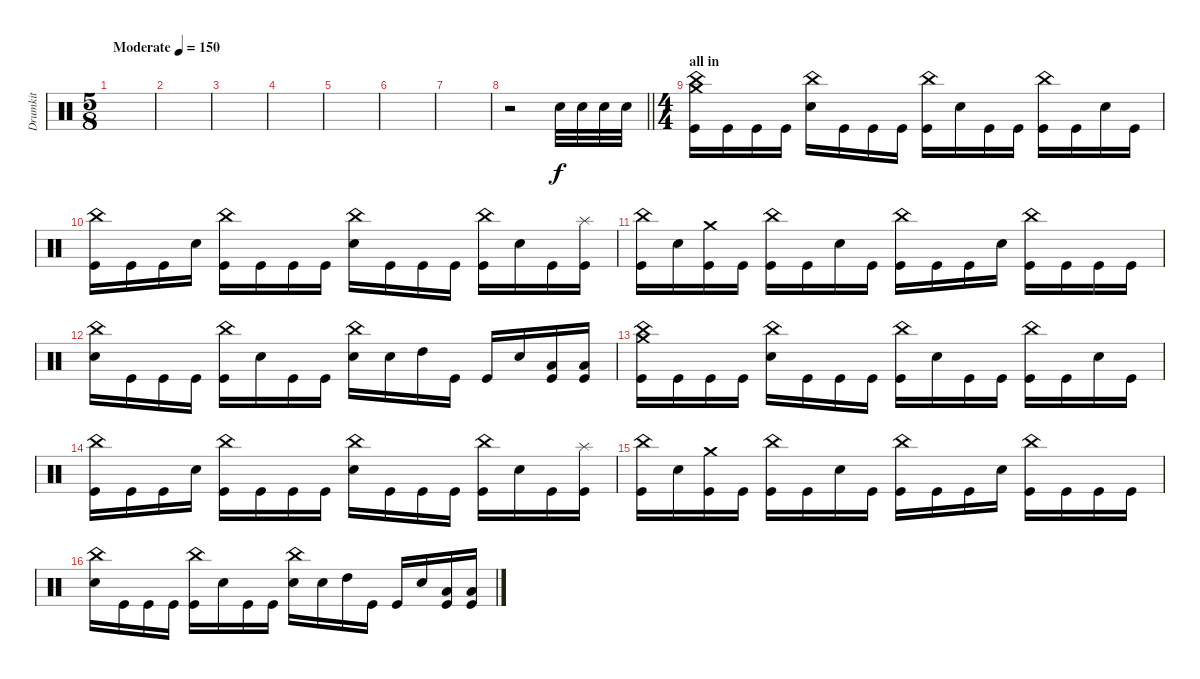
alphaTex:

\track ("Drumkit" "Drumkit") {instrument percussion}
\staff {score}
\articulation defaults
\ts (5 8)
\tempo (150 "Moderate")
\clef neutral
\ks c
|
|
|
|
|
|
|
\barLineRight lightlight
r.2 "Snare (hit) 2".32 "Snare (hit) 2".32 "Snare (hit) 2".32 "Snare (hit) 2".32 |
\ts (4 4)
\section ("" "all in")
("Kick (hit)" "Crash medium (hit)" "China (hit)").16 "Kick (hit)".16 "Kick (hit)".16 "Kick (hit)".16 ("Snare (hit) 2" "China (hit)").16 "Kick (hit)".16 "Kick (hit)".16 "Kick (hit)".16 ("Kick (hit)" "China (hit)").16 "Snare (hit) 2".16 "Kick (hit)".16 "Kick (hit)".16 ("Kick (hit)" "China (hit)").16 "Kick (hit)".16 "Snare (hit) 2".16 "Kick (hit)".16 |
("Kick (hit)" "China (hit)").16 "Kick (hit)".16 "Kick (hit)".16 "Snare (hit) 2".16 ("Kick (hit)" "China (hit)").16 "Kick (hit)".16 "Kick (hit)".16 "Kick (hit)".16 ("Snare (hit) 2" "China (hit)").16 "Kick (hit)".16 "Kick (hit)".16 "Kick (hit)".16 ("Kick (hit)" "China (hit)").16 "Snare (hit) 2".16 "Kick (hit)".16 ("Kick (hit)" "Splash (hit)").16 |
("Kick (hit)" "China (hit)").16 "Snare (hit) 2".16 ("Kick (hit)" "Crash medium (hit)").16 "Kick (hit)".16 ("Kick (hit)" "China (hit)").16 "Kick (hit)".16 "Snare (hit) 2".16 "Kick (hit)".16 ("Kick (hit)" "China (hit)").16 "Kick (hit)".16 "Kick (hit)".16 "Snare (hit) 2".16 ("Kick (hit)" "China (hit)").16 "Kick (hit)".16 "Kick (hit)".16 "Kick (hit)".16 |
("Snare (hit) 2" "China (hit)").16 "Kick (hit)".16 "Kick (hit)".16 "Kick (hit)".16 ("Kick (hit)" "China (hit)").16 "Snare (hit) 2".16 "Kick (hit)".16 "Kick (hit)".16 ("Snare (hit) 2" "China (hit)").16 "Snare (hit) 2".16 "High Tom (hit)".16 "Kick (hit)".16 "Kick (hit)".16 "Snare (hit) 2".16 ("Kick (hit)" "Low Floor Tom (hit)").16 ("Kick (hit)" "Low Floor Tom (hit)").16 |
("Kick (hit)" "Crash medium (hit)" "China (hit)").16 "Kick (hit)".16 "Kick (hit)".16 "Kick (hit)".16 ("Snare (hit) 2" "China (hit)").16 "Kick (hit)".16 "Kick (hit)".16 "Kick (hit)".16 ("Kick (hit)" "China (hit)").16 "Snare (hit) 2".16 "Kick (hit)".16 "Kick (hit)".16 ("Kick (hit)" "China (hit)").16 "Kick (hit)".16 "Snare (hit) 2".16 "Kick (hit)".16 |
("Kick (hit)" "China (hit)").16 "Kick (hit)".16 "Kick (hit)".16 "Snare (hit) 2".16 ("Kick (hit)" "China (hit)").16 "Kick (hit)".16 "Kick (hit)".16 "Kick (hit)".16 ("Snare (hit) 2" "China (hit)").16 "Kick (hit)".16 "Kick (hit)".16 "Kick (hit)".16 ("Kick (hit)" "China (hit)").16 "Snare (hit) 2".16 "Kick (hit)".16 ("Kick (hit)" "Splash (hit)").16 |
("Kick (hit)" "China (hit)").16 "Snare (hit) 2".16 ("Kick (hit)" "Crash medium (hit)").16 "Kick (hit)".16 ("Kick (hit)" "China (hit)").16 "Kick (hit)".16 "Snare (hit) 2".16 "Kick (hit)".16 ("Kick (hit)" "China (hit)").16 "Kick (hit)".16 "Kick (hit)".16 "Snare (hit) 2".16 ("Kick (hit)" "China (hit)").16 "Kick (hit)".16 "Kick (hit)".16 "Kick (hit)".16 |
("Snare (hit) 2" "China (hit)").16 "Kick (hit)".16 "Kick (hit)".16 "Kick (hit)".16 ("Kick (hit)" "China (hit)").16 "Snare (hit) 2".16 "Kick (hit)".16 "Kick (hit)".16 ("Snare (hit) 2" "China (hit)").16 "Snare (hit) 2".16 "High Tom (hit)".16 "Kick (hit)".16 "Kick (hit)".16 "Snare (hit) 2".16 ("Low Floor Tom (hit)" "Kick (hit)").16 ("Low Floor Tom (hit)" "Kick (hit)").16
